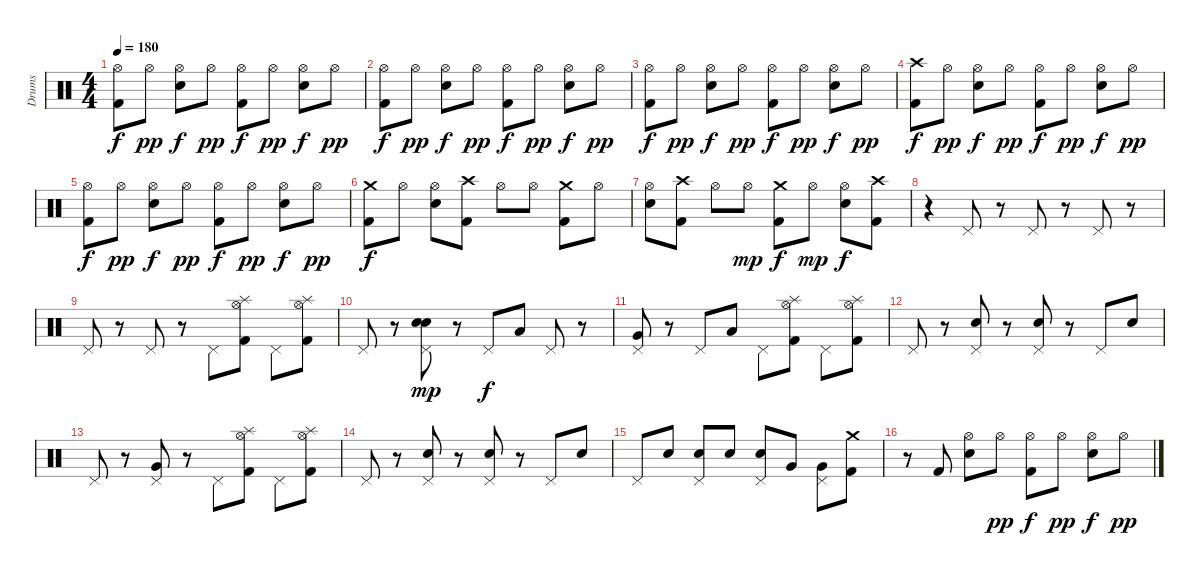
\track ("Drums" "Drums") {instrument percussion}
\staff {score}
\articulation defaults
\ts (4 4)
\tempo 180
\clef neutral
\ks c
("Hi-Hat (open)" "Kick (hit) 2").8{dy f} "Hi-Hat (open)".8{dy pp} ("Hi-Hat (open)" "Electric Snare (hit)").8{dy f} "Hi-Hat (open)".8{dy pp} ("Hi-Hat (open)" "Kick (hit) 2").8{dy f} "Hi-Hat (open)".8{dy pp} ("Hi-Hat (open)" "Electric Snare (hit)").8{dy f} "Hi-Hat (open)".8{dy pp} |
("Hi-Hat (open)" "Kick (hit) 2").8{dy f} "Hi-Hat (open)".8{dy pp} ("Hi-Hat (open)" "Electric Snare (hit)").8{dy f} "Hi-Hat (open)".8{dy pp} ("Hi-Hat (open)" "Kick (hit) 2").8{dy f} "Hi-Hat (open)".8{dy pp} ("Hi-Hat (open)" "Electric Snare (hit)").8{dy f} "Hi-Hat (open)".8{dy pp} |
("Hi-Hat (open)" "Kick (hit) 2").8{dy f} "Hi-Hat (open)".8{dy pp} ("Hi-Hat (open)" "Electric Snare (hit)").8{dy f} "Hi-Hat (open)".8{dy pp} ("Hi-Hat (open)" "Kick (hit) 2").8{dy f} "Hi-Hat (open)".8{dy pp} ("Hi-Hat (open)" "Electric Snare (hit)").8{dy f} "Hi-Hat (open)".8{dy pp} |
("Crash high (hit)" "Kick (hit) 2").8{dy f} "Hi-Hat (open)".8{dy pp} ("Hi-Hat (open)" "Electric Snare (hit)").8{dy f} "Hi-Hat (open)".8{dy pp} ("Hi-Hat (open)" "Kick (hit) 2").8{dy f} "Hi-Hat (open)".8{dy pp} ("Hi-Hat (open)" "Electric Snare (hit)").8{dy f} "Hi-Hat (open)".8{dy pp} |
("Hi-Hat (open)" "Kick (hit) 2").8{dy f} "Hi-Hat (open)".8{dy pp} ("Hi-Hat (open)" "Electric Snare (hit)").8{dy f} "Hi-Hat (open)".8{dy pp} ("Hi-Hat (open)" "Kick (hit) 2").8{dy f} "Hi-Hat (open)".8{dy pp} ("Hi-Hat (open)" "Electric Snare (hit)").8{dy f} "Hi-Hat (open)".8{dy pp} |
("Crash medium (hit)" "Kick (hit) 2").8{dy f} "Hi-Hat (open)".8 ("Hi-Hat (open)" "Electric Snare (hit)").8 ("Kick (hit) 2" "Crash high (hit)").8 "Hi-Hat (open)".8 "Hi-Hat (open)".8 ("Kick (hit) 2" "Crash medium (hit)").8 "Hi-Hat (open)".8 |
("Electric Snare (hit)" "Hi-Hat (open)").8 ("Crash high (hit)" "Kick (hit) 2").8 "Hi-Hat (open)".8 "Hi-Hat (open)".8{dy mp} ("Crash medium (hit)" "Kick (hit) 2").8{dy f} "Hi-Hat (open)".8{dy mp} ("Hi-Hat (open)" "Electric Snare (hit)").8{dy f} ("Crash high (hit)" "Kick (hit) 2").8 |
r.4 "Pedal Hi-Hat (hit)".8 r.8 "Pedal Hi-Hat (hit)".8 r.8 "Pedal Hi-Hat (hit)".8 r.8 |
"Pedal Hi-Hat (hit)".8 r.8 "Pedal Hi-Hat (hit)".8 r.8 "Pedal Hi-Hat (hit)".8 ("Splash (hit)" "Hi-Hat (open)" "Kick (hit) 2").8 "Pedal Hi-Hat (hit)".8 ("Splash (hit)" "Hi-Hat (open)" "Kick (hit) 2").8 |
"Pedal Hi-Hat (hit)".8 r.8 ("Electric Snare (hit)" "Pedal Hi-Hat (hit)" "Snare (hit) 2").8{dy mp} r.8 "Pedal Hi-Hat (hit)".8{dy f} "Low Tom (hit)".8 "Pedal Hi-Hat (hit)".8 r.8 |
("Very Low Tom (hit)" "Pedal Hi-Hat (hit)").8 r.8 "Pedal Hi-Hat (hit)".8 "Low Floor Tom (hit)".8 "Pedal Hi-Hat (hit)".8 ("Kick (hit) 2" "Hi-Hat (open)" "Splash (hit)").8 "Pedal Hi-Hat (hit)".8 ("Kick (hit) 2" "Hi-Hat (open)" "Splash (hit)").8 |
"Pedal Hi-Hat (hit)".8 r.8 ("Electric Snare (hit)" "Pedal Hi-Hat (hit)").8 r.8 ("Electric Snare (hit)" "Pedal Hi-Hat (hit)").8 r.8 "Pedal Hi-Hat (hit)".8 "Electric Snare (hit)".8 |
"Pedal Hi-Hat (hit)".8 r.8 ("Very Low Tom (hit)" "Pedal Hi-Hat (hit)").8 r.8 "Pedal Hi-Hat (hit)".8 ("Splash (hit)" "Hi-Hat (open)" "Kick (hit) 2").8 "Pedal Hi-Hat (hit)".8 ("Splash (hit)" "Hi-Hat (open)" "Kick (hit) 2").8 |
"Pedal Hi-Hat (hit)".8 r.8 ("Electric Snare (hit)" "Pedal Hi-Hat (hit)").8 r.8 ("Electric Snare (hit)" "Pedal Hi-Hat (hit)").8 r.8 "Pedal Hi-Hat (hit)".8 "Electric Snare (hit)".8 |
"Pedal Hi-Hat (hit)".8 "Electric Snare (hit)".8 ("Electric Snare (hit)" "Pedal Hi-Hat (hit)").8 "Electric Snare (hit)".8 ("Electric Snare (hit)" "Pedal Hi-Hat (hit)").8 "Very Low Tom (hit)".8 ("Very Low Tom (hit)" "Pedal Hi-Hat (hit)").8 ("Crash medium (hit)" "Kick (hit) 2").8 |
r.8 "Kick (hit) 2".8 ("Hi-Hat (open)" "Electric Snare (hit)").8 "Hi-Hat (open)".8{dy pp} ("Hi-Hat (open)" "Kick (hit) 2").8{dy f} "Hi-Hat (open)".8{dy pp} ("Hi-Hat (open)" "Electric Snare (hit)").8{dy f} "Hi-Hat (open)".8{dy pp}
